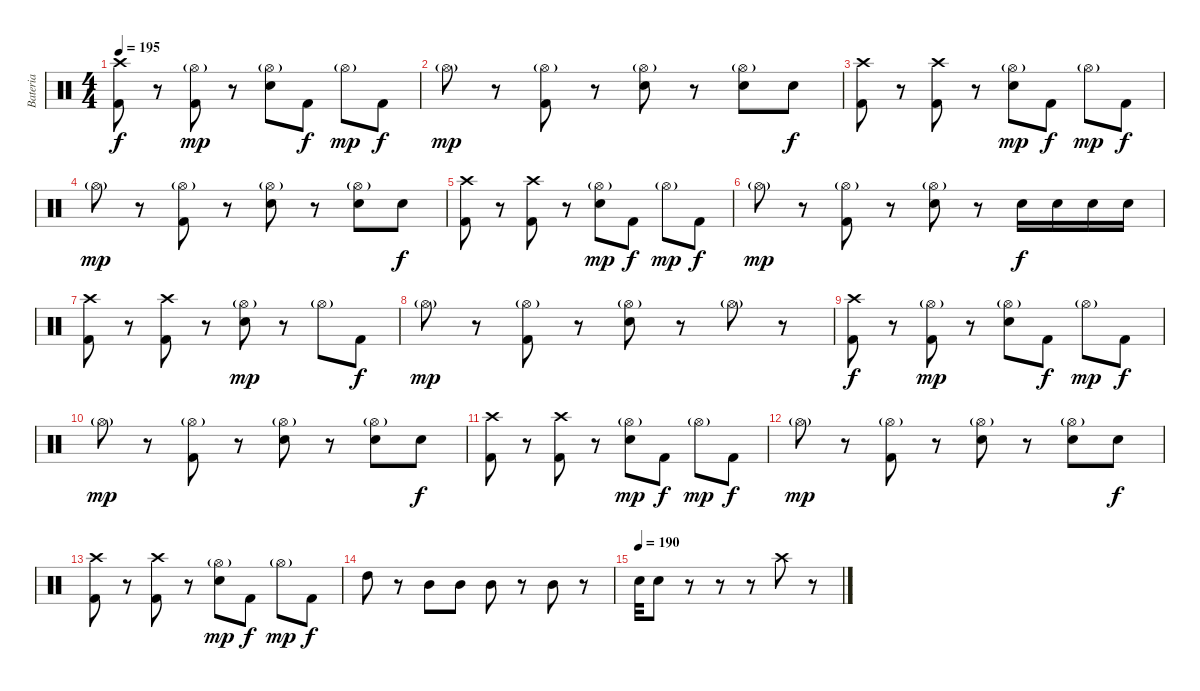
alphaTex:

\track ("Bateria" "Bateria") {instrument percussion}
\staff {score}
\articulation defaults
\ts (4 4)
\tempo 195
\clef neutral
\ks c
("Crash high (hit)" "Kick (hit) 2").8{dy f} r.8 ("Hi-Hat (open)"{g} "Kick (hit) 2").8{dy mp} r.8 ("Hi-Hat (open)"{g} "Snare (hit) 2").8 "Kick (hit) 2".8{dy f} "Hi-Hat (open)"{g}.8{dy mp} "Kick (hit) 2".8{dy f} |
"Hi-Hat (open)"{g}.8{dy mp} r.8 ("Hi-Hat (open)"{g} "Kick (hit) 2").8 r.8 ("Hi-Hat (open)"{g} "Snare (hit) 2").8 r.8 ("Hi-Hat (open)"{g} "Snare (hit) 2").8 "Snare (hit) 2".8{dy f} |
("Crash high (hit)" "Kick (hit) 2").8 r.8 ("Crash high (hit)" "Kick (hit) 2").8 r.8 ("Hi-Hat (open)"{g} "Snare (hit) 2").8{dy mp} "Kick (hit) 2".8{dy f} "Hi-Hat (open)"{g}.8{dy mp} "Kick (hit) 2".8{dy f} |
"Hi-Hat (open)"{g}.8{dy mp} r.8 ("Hi-Hat (open)"{g} "Kick (hit) 2").8 r.8 ("Hi-Hat (open)"{g} "Snare (hit) 2").8 r.8 ("Hi-Hat (open)"{g} "Snare (hit) 2").8 "Snare (hit) 2".8{dy f} |
("Crash high (hit)" "Kick (hit) 2").8 r.8 ("Crash high (hit)" "Kick (hit) 2").8 r.8 ("Hi-Hat (open)"{g} "Snare (hit) 2").8{dy mp} "Kick (hit) 2".8{dy f} "Hi-Hat (open)"{g}.8{dy mp} "Kick (hit) 2".8{dy f} |
"Hi-Hat (open)"{g}.8{dy mp} r.8 ("Hi-Hat (open)"{g} "Kick (hit) 2").8 r.8 ("Hi-Hat (open)"{g} "Snare (hit) 2").8 r.8 "Snare (hit) 2".16{dy f} "Snare (hit) 2".16 "Snare (hit) 2".16 "Snare (hit) 2".16 |
("Crash high (hit)" "Kick (hit) 2").8 r.8 ("Crash high (hit)" "Kick (hit) 2").8 r.8 ("Hi-Hat (open)"{g} "Snare (hit) 2").8{dy mp} r.8 "Hi-Hat (open)"{g}.8 "Kick (hit) 2".8{dy f} |
"Hi-Hat (open)"{g}.8{dy mp} r.8 ("Hi-Hat (open)"{g} "Kick (hit) 2").8 r.8 ("Hi-Hat (open)"{g} "Snare (hit) 2").8 r.8 "Hi-Hat (open)"{g}.8 r.8 |
("Crash high (hit)" "Kick (hit) 2").8{dy f} r.8 ("Hi-Hat (open)"{g} "Kick (hit) 2").8{dy mp} r.8 ("Hi-Hat (open)"{g} "Snare (hit) 2").8 "Kick (hit) 2".8{dy f} "Hi-Hat (open)"{g}.8{dy mp} "Kick (hit) 2".8{dy f} |
"Hi-Hat (open)"{g}.8{dy mp} r.8 ("Hi-Hat (open)"{g} "Kick (hit) 2").8 r.8 ("Hi-Hat (open)"{g} "Snare (hit) 2").8 r.8 ("Hi-Hat (open)"{g} "Snare (hit) 2").8 "Snare (hit) 2".8{dy f} |
("Crash high (hit)" "Kick (hit) 2").8 r.8 ("Crash high (hit)" "Kick (hit) 2").8 r.8 ("Hi-Hat (open)"{g} "Snare (hit) 2").8{dy mp} "Kick (hit) 2".8{dy f} "Hi-Hat (open)"{g}.8{dy mp} "Kick (hit) 2".8{dy f} |
"Hi-Hat (open)"{g}.8{dy mp} r.8 ("Hi-Hat (open)"{g} "Kick (hit) 2").8 r.8 ("Hi-Hat (open)"{g} "Snare (hit) 2").8 r.8 ("Hi-Hat (open)"{g} "Snare (hit) 2").8 "Snare (hit) 2".8{dy f} |
("Crash high (hit)" "Kick (hit) 2").8 r.8 ("Crash high (hit)" "Kick (hit) 2").8 r.8 ("Hi-Hat (open)"{g} "Snare (hit) 2").8{dy mp} "Kick (hit) 2".8{dy f} "Hi-Hat (open)"{g}.8{dy mp} "Kick (hit) 2".8{dy f} |
"High Tom (hit)".8 r.8 "Mid Tom (hit)".8 "Mid Tom (hit)".8 "Mid Tom (hit)".8 r.8 "Mid Tom (hit)".8 r.8 |
\tempo (190)
"Snare (hit) 2".32 "Snare (hit) 2".8 r.8 r.8 r.8 "Crash high (hit)".8 r.8
